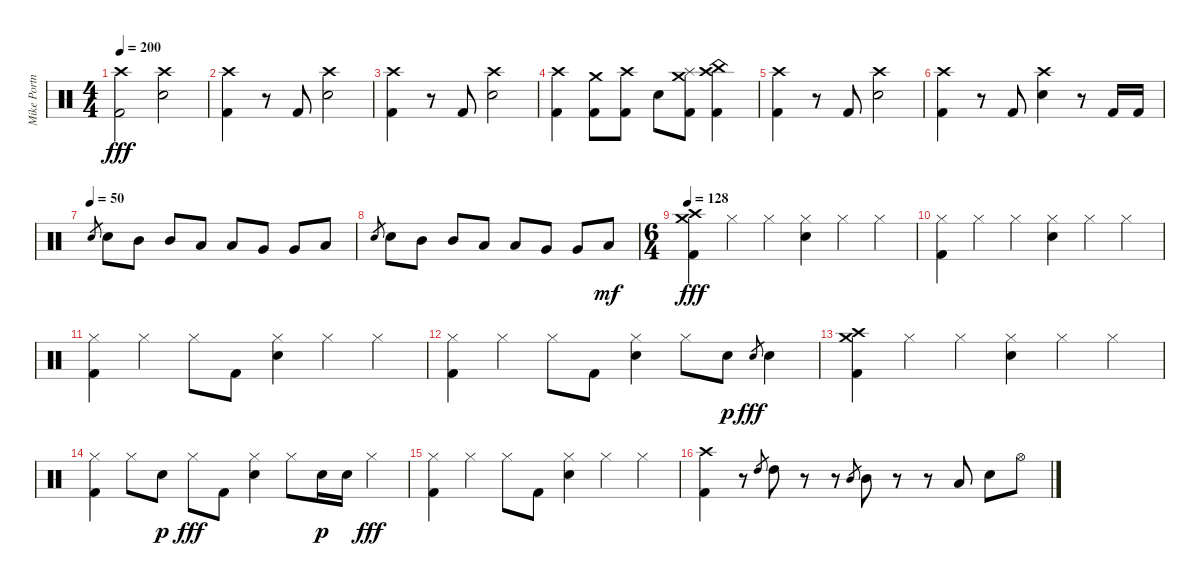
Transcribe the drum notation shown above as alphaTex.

\track ("Mike Portnoy" "Mike Portn") {instrument percussion}
\staff {score}
\articulation defaults
\ts (4 4)
\tempo 200
\clef neutral
\ks c
("Crash high (hit)" "Kick (hit) 2").2{dy fff} ("Crash high (hit)" "Electric Snare (hit)").2 |
("Crash high (hit)" "Kick (hit) 2").4 r.8 "Kick (hit) 2".8 ("Crash high (hit)" "Electric Snare (hit)").2 |
("Crash high (hit)" "Kick (hit) 2").4 r.8 "Kick (hit) 2".8 ("Crash high (hit)" "Electric Snare (hit)").2 |
("Crash high (hit)" "Kick (hit) 2").4 ("Crash medium (hit)" "Kick (hit) 2").8 ("Crash high (hit)" "Kick (hit) 2").8 "Electric Snare (hit)".8 ("Crash medium (hit)" "Splash (hit)" "Kick (hit) 2").8 ("Crash high (hit)" "China (hit)" "Kick (hit) 2").4 |
("Crash high (hit)" "Kick (hit) 2").4 r.8 "Kick (hit) 2".8 ("Crash high (hit)" "Electric Snare (hit)").2 |
("Crash high (hit)" "Kick (hit) 2").4 r.8 "Kick (hit) 2".8 ("Crash high (hit)" "Electric Snare (hit)").4 r.8 "Kick (hit) 2".16 "Kick (hit) 2".16 |
\tempo (50)
"Electric Snare (hit)".8{gr} "Electric Snare (hit)".8 "Mid Tom (hit)".8 "Mid Tom (hit)".8 "Low Tom (hit)".8 "Low Tom (hit)".8 "Very Low Tom (hit)".8 "Very Low Tom (hit)".8 "Low Floor Tom (hit)".8 |
"Electric Snare (hit)".8{gr} "Electric Snare (hit)".8 "Mid Tom (hit)".8 "Mid Tom (hit)".8 "Low Tom (hit)".8 "Low Tom (hit)".8 "Very Low Tom (hit)".8 "Very Low Tom (hit)".8 "Low Floor Tom (hit)".8{dy mf} |
\ts (6 4)
\tempo 128
("Crash high (hit)" "Crash medium (hit)" "Kick (hit) 2").4{dy fff} "Hi-Hat (closed)".4 "Hi-Hat (closed)".4 ("Hi-Hat (closed)" "Electric Snare (hit)").4 "Hi-Hat (closed)".4 "Hi-Hat (closed)".4 |
("Hi-Hat (closed)" "Kick (hit) 2").4 "Hi-Hat (closed)".4 "Hi-Hat (closed)".4 ("Hi-Hat (closed)" "Electric Snare (hit)").4 "Hi-Hat (closed)".4 "Hi-Hat (closed)".4 |
("Hi-Hat (closed)" "Kick (hit) 2").4 "Hi-Hat (closed)".4 "Hi-Hat (closed)".8 "Kick (hit) 2".8 ("Hi-Hat (closed)" "Electric Snare (hit)").4 "Hi-Hat (closed)".4 "Hi-Hat (closed)".4 |
("Hi-Hat (closed)" "Kick (hit) 2").4 "Hi-Hat (closed)".4 "Hi-Hat (closed)".8 "Kick (hit) 2".8 ("Hi-Hat (closed)" "Electric Snare (hit)").4 "Hi-Hat (closed)".8 "Electric Snare (hit)".8{dy p} "Electric Snare (hit)".8{gr dy fff} "Electric Snare (hit)".4 |
("Crash high (hit)" "Crash medium (hit)" "Kick (hit) 2").4 "Hi-Hat (closed)".4 "Hi-Hat (closed)".4 ("Hi-Hat (closed)" "Electric Snare (hit)").4 "Hi-Hat (closed)".4 "Hi-Hat (closed)".4 |
("Hi-Hat (closed)" "Kick (hit) 2").4 "Hi-Hat (closed)".8 "Electric Snare (hit)".8{dy p} "Hi-Hat (closed)".8{dy fff} "Kick (hit) 2".8 ("Hi-Hat (closed)" "Electric Snare (hit)").4 "Hi-Hat (closed)".8 "Electric Snare (hit)".16{dy p} "Electric Snare (hit)".16 "Hi-Hat (closed)".4{dy fff} |
("Hi-Hat (closed)" "Kick (hit) 2").4 "Hi-Hat (closed)".4 "Hi-Hat (closed)".8 "Kick (hit) 2".8 ("Hi-Hat (closed)" "Electric Snare (hit)").4 "Hi-Hat (closed)".4 "Hi-Hat (closed)".4 |
("Crash high (hit)" "Kick (hit) 2").4 r.8 "High Tom (hit)".8{gr} "High Tom (hit)".8 r.8 r.8 "Mid Tom (hit)".8{gr} "Mid Tom (hit)".8 r.8 r.8 "Low Tom (hit)".8 "Electric Snare (hit)".8 "Hi-Hat (open)".8
